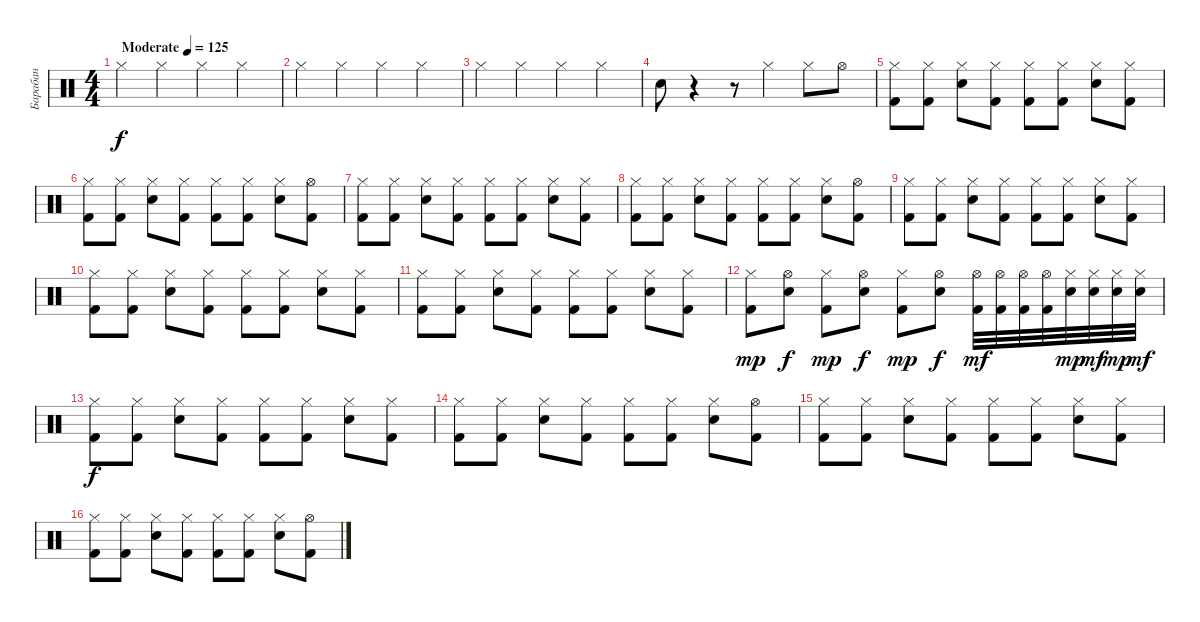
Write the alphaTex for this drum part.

\track ("Барабан" "Барабан") {instrument percussion}
\staff {score}
\articulation defaults
\ts (4 4)
\tempo (125 "Moderate")
\clef neutral
\ks c "Hi-Hat (closed)".4{dy f} "Hi-Hat (closed)".4 "Hi-Hat (closed)".4 "Hi-Hat (closed)".4
|
"Hi-Hat (closed)".4 "Hi-Hat (closed)".4 "Hi-Hat (closed)".4 "Hi-Hat (closed)".4 |
"Hi-Hat (closed)".4 "Hi-Hat (closed)".4 "Hi-Hat (closed)".4 "Hi-Hat (closed)".4 |
"Electric Snare (hit)".8 r.4 r.8 "Hi-Hat (closed)".4 "Hi-Hat (closed)".8 "Hi-Hat (open)".8 |
("Kick (hit) 2" "Hi-Hat (closed)").8 ("Kick (hit) 2" "Hi-Hat (closed)").8 ("Electric Snare (hit)" "Hi-Hat (closed)").8 ("Kick (hit) 2" "Hi-Hat (closed)").8 ("Kick (hit) 2" "Hi-Hat (closed)").8 ("Kick (hit) 2" "Hi-Hat (closed)").8 ("Electric Snare (hit)" "Hi-Hat (closed)").8 ("Kick (hit) 2" "Hi-Hat (closed)").8 |
("Kick (hit) 2" "Hi-Hat (closed)").8 ("Kick (hit) 2" "Hi-Hat (closed)").8 ("Electric Snare (hit)" "Hi-Hat (closed)").8 ("Kick (hit) 2" "Hi-Hat (closed)").8 ("Kick (hit) 2" "Hi-Hat (closed)").8 ("Kick (hit) 2" "Hi-Hat (closed)").8 ("Electric Snare (hit)" "Hi-Hat (closed)").8 ("Kick (hit) 2" "Hi-Hat (open)").8 |
("Kick (hit) 2" "Hi-Hat (closed)").8 ("Kick (hit) 2" "Hi-Hat (closed)").8 ("Electric Snare (hit)" "Hi-Hat (closed)").8 ("Kick (hit) 2" "Hi-Hat (closed)").8 ("Kick (hit) 2" "Hi-Hat (closed)").8 ("Kick (hit) 2" "Hi-Hat (closed)").8 ("Electric Snare (hit)" "Hi-Hat (closed)").8 ("Kick (hit) 2" "Hi-Hat (closed)").8 |
("Kick (hit) 2" "Hi-Hat (closed)").8 ("Kick (hit) 2" "Hi-Hat (closed)").8 ("Electric Snare (hit)" "Hi-Hat (closed)").8 ("Kick (hit) 2" "Hi-Hat (closed)").8 ("Kick (hit) 2" "Hi-Hat (closed)").8 ("Kick (hit) 2" "Hi-Hat (closed)").8 ("Electric Snare (hit)" "Hi-Hat (closed)").8 ("Kick (hit) 2" "Hi-Hat (open)").8 |
("Kick (hit) 2" "Hi-Hat (closed)").8 ("Kick (hit) 2" "Hi-Hat (closed)").8 ("Electric Snare (hit)" "Hi-Hat (closed)").8 ("Kick (hit) 2" "Hi-Hat (closed)").8 ("Kick (hit) 2" "Hi-Hat (closed)").8 ("Kick (hit) 2" "Hi-Hat (closed)").8 ("Electric Snare (hit)" "Hi-Hat (closed)").8 ("Kick (hit) 2" "Hi-Hat (closed)").8 |
("Kick (hit) 2" "Hi-Hat (closed)").8 ("Kick (hit) 2" "Hi-Hat (closed)").8 ("Electric Snare (hit)" "Hi-Hat (closed)").8 ("Kick (hit) 2" "Hi-Hat (closed)").8 ("Kick (hit) 2" "Hi-Hat (closed)").8 ("Kick (hit) 2" "Hi-Hat (closed)").8 ("Electric Snare (hit)" "Hi-Hat (closed)").8 ("Kick (hit) 2" "Hi-Hat (closed)").8 |
("Kick (hit) 2" "Hi-Hat (closed)").8 ("Kick (hit) 2" "Hi-Hat (closed)").8 ("Electric Snare (hit)" "Hi-Hat (closed)").8 ("Kick (hit) 2" "Hi-Hat (closed)").8 ("Kick (hit) 2" "Hi-Hat (closed)").8 ("Kick (hit) 2" "Hi-Hat (closed)").8 ("Electric Snare (hit)" "Hi-Hat (closed)").8 ("Kick (hit) 2" "Hi-Hat (closed)").8 |
("Kick (hit) 2" "Hi-Hat (closed)").8{dy mp} ("Electric Snare (hit)" "Hi-Hat (open)").8{dy f} ("Kick (hit) 2" "Hi-Hat (closed)").8{dy mp} ("Electric Snare (hit)" "Hi-Hat (open)").8{dy f} ("Kick (hit) 2" "Hi-Hat (closed)").8{dy mp} ("Electric Snare (hit)" "Hi-Hat (open)").8{dy f} ("Hi-Hat (open)" "Kick (hit) 2").32{dy mf} ("Hi-Hat (open)" "Kick (hit) 2").32 ("Hi-Hat (open)" "Kick (hit) 2").32 ("Hi-Hat (open)" "Kick (hit) 2").32 ("Hi-Hat (closed)" "Snare (hit) 2").32{dy mp} ("Hi-Hat (closed)" "Snare (hit) 2").32{dy mf} ("Hi-Hat (closed)" "Snare (hit) 2").32{dy mp} ("Hi-Hat (closed)" "Snare (hit) 2").32{dy mf} |
("Kick (hit) 2" "Hi-Hat (closed)").8{dy f} ("Kick (hit) 2" "Hi-Hat (closed)").8 ("Electric Snare (hit)" "Hi-Hat (closed)").8 ("Kick (hit) 2" "Hi-Hat (closed)").8 ("Kick (hit) 2" "Hi-Hat (closed)").8 ("Kick (hit) 2" "Hi-Hat (closed)").8 ("Electric Snare (hit)" "Hi-Hat (closed)").8 ("Kick (hit) 2" "Hi-Hat (closed)").8 |
("Kick (hit) 2" "Hi-Hat (closed)").8 ("Kick (hit) 2" "Hi-Hat (closed)").8 ("Electric Snare (hit)" "Hi-Hat (closed)").8 ("Kick (hit) 2" "Hi-Hat (closed)").8 ("Kick (hit) 2" "Hi-Hat (closed)").8 ("Kick (hit) 2" "Hi-Hat (closed)").8 ("Electric Snare (hit)" "Hi-Hat (closed)").8 ("Kick (hit) 2" "Hi-Hat (open)").8 |
("Kick (hit) 2" "Hi-Hat (closed)").8 ("Kick (hit) 2" "Hi-Hat (closed)").8 ("Electric Snare (hit)" "Hi-Hat (closed)").8 ("Kick (hit) 2" "Hi-Hat (closed)").8 ("Kick (hit) 2" "Hi-Hat (closed)").8 ("Kick (hit) 2" "Hi-Hat (closed)").8 ("Electric Snare (hit)" "Hi-Hat (closed)").8 ("Kick (hit) 2" "Hi-Hat (closed)").8 |
("Kick (hit) 2" "Hi-Hat (closed)").8 ("Kick (hit) 2" "Hi-Hat (closed)").8 ("Electric Snare (hit)" "Hi-Hat (closed)").8 ("Kick (hit) 2" "Hi-Hat (closed)").8 ("Kick (hit) 2" "Hi-Hat (closed)").8 ("Kick (hit) 2" "Hi-Hat (closed)").8 ("Electric Snare (hit)" "Hi-Hat (closed)").8 ("Kick (hit) 2" "Hi-Hat (open)").8
